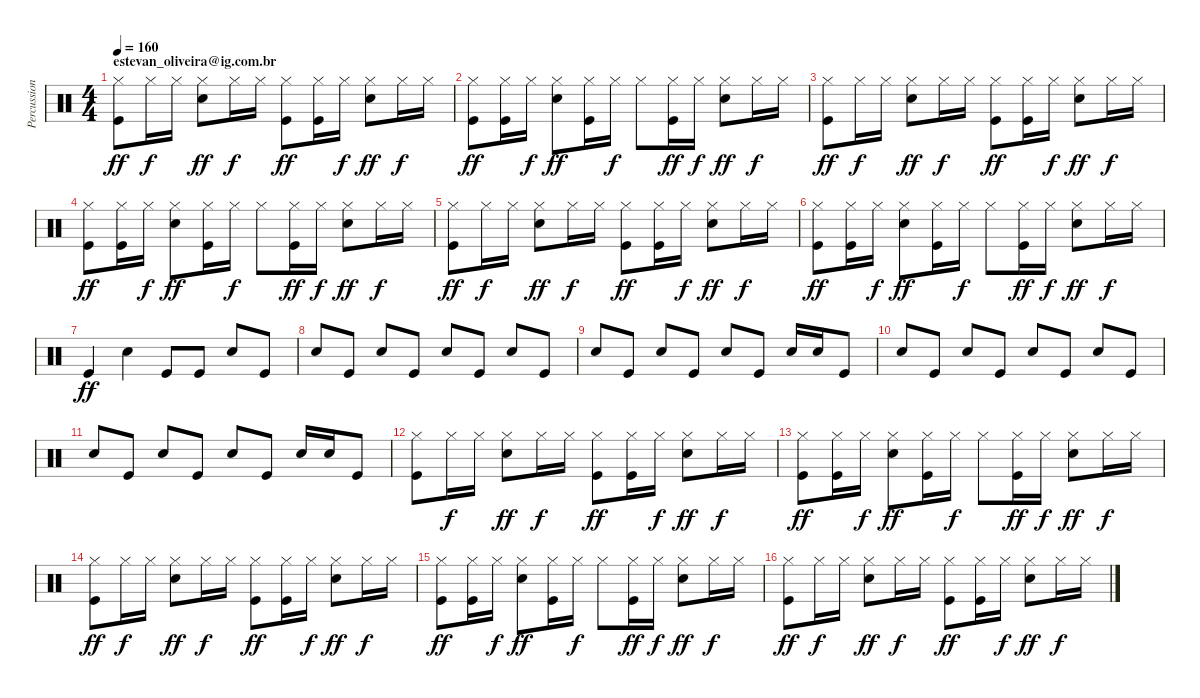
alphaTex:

\track ("Percussion" "Percussion") {instrument percussion}
\staff {score}
\articulation defaults
\ts (4 4)
\section ("" "estevan_oliveira@ig.com.br")
\tempo 160
\clef neutral
\ks c
("Kick (hit)" "Hi-Hat (closed)").8{dy ff} "Hi-Hat (closed)".16{dy f} "Hi-Hat (closed)".16 ("Snare (hit) 2" "Hi-Hat (closed)").8{dy ff} "Hi-Hat (closed)".16{dy f} "Hi-Hat (closed)".16 ("Kick (hit)" "Hi-Hat (closed)").8{dy ff} ("Kick (hit)" "Hi-Hat (closed)").16 "Hi-Hat (closed)".16{dy f} ("Snare (hit) 2" "Hi-Hat (closed)").8{dy ff} "Hi-Hat (closed)".16{dy f} "Hi-Hat (closed)".16 |
("Kick (hit)" "Hi-Hat (closed)").8{dy ff} ("Kick (hit)" "Hi-Hat (closed)").16 "Hi-Hat (closed)".16{dy f} ("Snare (hit) 2" "Hi-Hat (closed)").8{dy ff} ("Kick (hit)" "Hi-Hat (closed)").16 "Hi-Hat (closed)".16{dy f} "Hi-Hat (closed)".8 ("Kick (hit)" "Hi-Hat (closed)").16{dy ff} "Hi-Hat (closed)".16{dy f} ("Snare (hit) 2" "Hi-Hat (closed)").8{dy ff} "Hi-Hat (closed)".16{dy f} "Hi-Hat (closed)".16 |
("Kick (hit)" "Hi-Hat (closed)").8{dy ff} "Hi-Hat (closed)".16{dy f} "Hi-Hat (closed)".16 ("Snare (hit) 2" "Hi-Hat (closed)").8{dy ff} "Hi-Hat (closed)".16{dy f} "Hi-Hat (closed)".16 ("Kick (hit)" "Hi-Hat (closed)").8{dy ff} ("Kick (hit)" "Hi-Hat (closed)").16 "Hi-Hat (closed)".16{dy f} ("Snare (hit) 2" "Hi-Hat (closed)").8{dy ff} "Hi-Hat (closed)".16{dy f} "Hi-Hat (closed)".16 |
("Kick (hit)" "Hi-Hat (closed)").8{dy ff} ("Kick (hit)" "Hi-Hat (closed)").16 "Hi-Hat (closed)".16{dy f} ("Snare (hit) 2" "Hi-Hat (closed)").8{dy ff} ("Kick (hit)" "Hi-Hat (closed)").16 "Hi-Hat (closed)".16{dy f} "Hi-Hat (closed)".8 ("Kick (hit)" "Hi-Hat (closed)").16{dy ff} "Hi-Hat (closed)".16{dy f} ("Snare (hit) 2" "Hi-Hat (closed)").8{dy ff} "Hi-Hat (closed)".16{dy f} "Hi-Hat (closed)".16 |
("Kick (hit)" "Hi-Hat (closed)").8{dy ff} "Hi-Hat (closed)".16{dy f} "Hi-Hat (closed)".16 ("Snare (hit) 2" "Hi-Hat (closed)").8{dy ff} "Hi-Hat (closed)".16{dy f} "Hi-Hat (closed)".16 ("Kick (hit)" "Hi-Hat (closed)").8{dy ff} ("Kick (hit)" "Hi-Hat (closed)").16 "Hi-Hat (closed)".16{dy f} ("Snare (hit) 2" "Hi-Hat (closed)").8{dy ff} "Hi-Hat (closed)".16{dy f} "Hi-Hat (closed)".16 |
("Kick (hit)" "Hi-Hat (closed)").8{dy ff} ("Kick (hit)" "Hi-Hat (closed)").16 "Hi-Hat (closed)".16{dy f} ("Snare (hit) 2" "Hi-Hat (closed)").8{dy ff} ("Kick (hit)" "Hi-Hat (closed)").16 "Hi-Hat (closed)".16{dy f} "Hi-Hat (closed)".8 ("Kick (hit)" "Hi-Hat (closed)").16{dy ff} "Hi-Hat (closed)".16{dy f} ("Snare (hit) 2" "Hi-Hat (closed)").8{dy ff} "Hi-Hat (closed)".16{dy f} "Hi-Hat (closed)".16 |
"Kick (hit)".4{dy ff} "Snare (hit) 2".4 "Kick (hit)".8 "Kick (hit)".8 "Snare (hit) 2".8 "Kick (hit)".8 |
"Snare (hit) 2".8 "Kick (hit)".8 "Snare (hit) 2".8 "Kick (hit)".8 "Snare (hit) 2".8 "Kick (hit)".8 "Snare (hit) 2".8 "Kick (hit)".8 |
"Snare (hit) 2".8 "Kick (hit)".8 "Snare (hit) 2".8 "Kick (hit)".8 "Snare (hit) 2".8 "Kick (hit)".8 "Snare (hit) 2".16 "Snare (hit) 2".16 "Kick (hit)".8 |
"Snare (hit) 2".8 "Kick (hit)".8 "Snare (hit) 2".8 "Kick (hit)".8 "Snare (hit) 2".8 "Kick (hit)".8 "Snare (hit) 2".8 "Kick (hit)".8 |
"Snare (hit) 2".8 "Kick (hit)".8 "Snare (hit) 2".8 "Kick (hit)".8 "Snare (hit) 2".8 "Kick (hit)".8 "Snare (hit) 2".16 "Snare (hit) 2".16 "Kick (hit)".8 |
("Kick (hit)" "Hi-Hat (closed)").8 "Hi-Hat (closed)".16{dy f} "Hi-Hat (closed)".16 ("Snare (hit) 2" "Hi-Hat (closed)").8{dy ff} "Hi-Hat (closed)".16{dy f} "Hi-Hat (closed)".16 ("Kick (hit)" "Hi-Hat (closed)").8{dy ff} ("Kick (hit)" "Hi-Hat (closed)").16 "Hi-Hat (closed)".16{dy f} ("Snare (hit) 2" "Hi-Hat (closed)").8{dy ff} "Hi-Hat (closed)".16{dy f} "Hi-Hat (closed)".16 |
("Kick (hit)" "Hi-Hat (closed)").8{dy ff} ("Kick (hit)" "Hi-Hat (closed)").16 "Hi-Hat (closed)".16{dy f} ("Snare (hit) 2" "Hi-Hat (closed)").8{dy ff} ("Kick (hit)" "Hi-Hat (closed)").16 "Hi-Hat (closed)".16{dy f} "Hi-Hat (closed)".8 ("Kick (hit)" "Hi-Hat (closed)").16{dy ff} "Hi-Hat (closed)".16{dy f} ("Snare (hit) 2" "Hi-Hat (closed)").8{dy ff} "Hi-Hat (closed)".16{dy f} "Hi-Hat (closed)".16 |
("Kick (hit)" "Hi-Hat (closed)").8{dy ff} "Hi-Hat (closed)".16{dy f} "Hi-Hat (closed)".16 ("Snare (hit) 2" "Hi-Hat (closed)").8{dy ff} "Hi-Hat (closed)".16{dy f} "Hi-Hat (closed)".16 ("Kick (hit)" "Hi-Hat (closed)").8{dy ff} ("Kick (hit)" "Hi-Hat (closed)").16 "Hi-Hat (closed)".16{dy f} ("Snare (hit) 2" "Hi-Hat (closed)").8{dy ff} "Hi-Hat (closed)".16{dy f} "Hi-Hat (closed)".16 |
("Kick (hit)" "Hi-Hat (closed)").8{dy ff} ("Kick (hit)" "Hi-Hat (closed)").16 "Hi-Hat (closed)".16{dy f} ("Snare (hit) 2" "Hi-Hat (closed)").8{dy ff} ("Kick (hit)" "Hi-Hat (closed)").16 "Hi-Hat (closed)".16{dy f} "Hi-Hat (closed)".8 ("Kick (hit)" "Hi-Hat (closed)").16{dy ff} "Hi-Hat (closed)".16{dy f} ("Snare (hit) 2" "Hi-Hat (closed)").8{dy ff} "Hi-Hat (closed)".16{dy f} "Hi-Hat (closed)".16 |
("Kick (hit)" "Hi-Hat (closed)").8{dy ff} "Hi-Hat (closed)".16{dy f} "Hi-Hat (closed)".16 ("Snare (hit) 2" "Hi-Hat (closed)").8{dy ff} "Hi-Hat (closed)".16{dy f} "Hi-Hat (closed)".16 ("Kick (hit)" "Hi-Hat (closed)").8{dy ff} ("Kick (hit)" "Hi-Hat (closed)").16 "Hi-Hat (closed)".16{dy f} ("Snare (hit) 2" "Hi-Hat (closed)").8{dy ff} "Hi-Hat (closed)".16{dy f} "Hi-Hat (closed)".16
